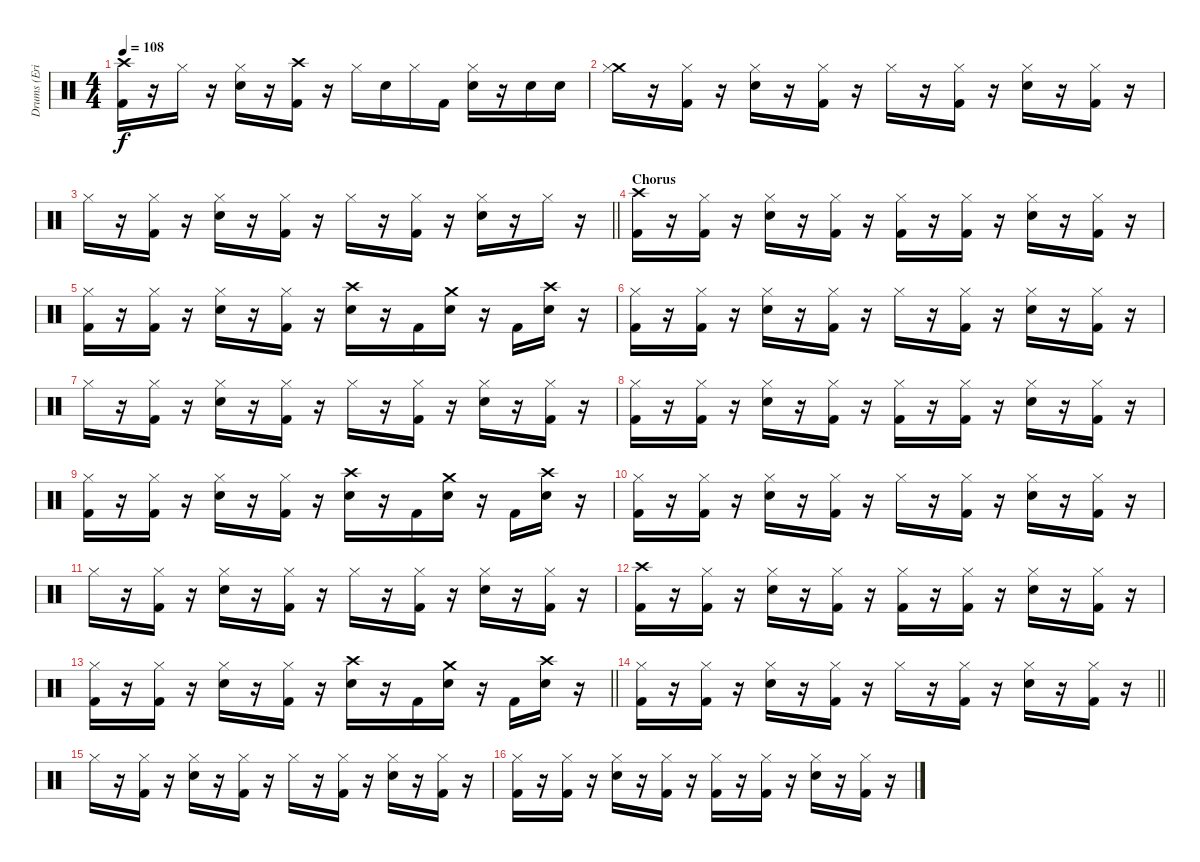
\track ("Drums (Eric Kretz)" "Drums (Eri") {instrument percussion}
\staff {score}
\articulation defaults
\ts (4 4)
\tempo 108
\clef neutral
\ks c
("Crash high (hit)" "Kick (hit) 2").16{dy f} r.16 "Hi-Hat (closed)".16 r.16 ("Hi-Hat (closed)" "Electric Snare (hit)").16 r.16 ("Crash high (hit)" "Kick (hit) 2").16 r.16 "Hi-Hat (closed)".16 "Electric Snare (hit)".16 "Hi-Hat (closed)".16 "Kick (hit) 2".16 ("Hi-Hat (closed)" "Electric Snare (hit)").16 r.16 "Electric Snare (hit)".16 "Electric Snare (hit)".16 |
("Crash medium (hit)" "Hi-Hat (closed)").16 r.16 ("Hi-Hat (closed)" "Kick (hit) 2").16 r.16 ("Hi-Hat (closed)" "Electric Snare (hit)").16 r.16 ("Hi-Hat (closed)" "Kick (hit) 2").16 r.16 "Hi-Hat (closed)".16 r.16 ("Hi-Hat (closed)" "Kick (hit) 2").16 r.16 ("Hi-Hat (closed)" "Electric Snare (hit)").16 r.16 ("Hi-Hat (closed)" "Kick (hit) 2").16 r.16 |
\barLineRight lightlight "Hi-Hat (closed)".16
r.16 ("Hi-Hat (closed)" "Kick (hit) 2").16 r.16 ("Hi-Hat (closed)" "Electric Snare (hit)").16 r.16 ("Hi-Hat (closed)" "Kick (hit) 2").16 r.16 "Hi-Hat (closed)".16 r.16 ("Hi-Hat (closed)" "Kick (hit) 2").16 r.16 ("Hi-Hat (closed)" "Electric Snare (hit)").16 r.16 "Hi-Hat (closed)".16 r.16 |
\section ("" "Chorus")
("Crash high (hit)" "Kick (hit) 2").16 r.16 ("Hi-Hat (closed)" "Kick (hit) 2").16 r.16 ("Hi-Hat (closed)" "Electric Snare (hit)").16 r.16 ("Hi-Hat (closed)" "Kick (hit) 2").16 r.16 ("Hi-Hat (closed)" "Kick (hit) 2").16 r.16 ("Hi-Hat (closed)" "Kick (hit) 2").16 r.16 ("Hi-Hat (closed)" "Electric Snare (hit)").16 r.16 ("Hi-Hat (closed)" "Kick (hit) 2").16 r.16 |
("Hi-Hat (closed)" "Kick (hit) 2").16 r.16 ("Hi-Hat (closed)" "Kick (hit) 2").16 r.16 ("Hi-Hat (closed)" "Electric Snare (hit)").16 r.16 ("Hi-Hat (closed)" "Kick (hit) 2").16 r.16 ("Crash high (hit)" "Electric Snare (hit)").16 r.16 "Kick (hit) 2".16 ("Crash medium (hit)" "Electric Snare (hit)").16 r.16 "Kick (hit) 2".16 ("Crash high (hit)" "Electric Snare (hit)").16 r.16 |
("Hi-Hat (closed)" "Kick (hit) 2").16 r.16 ("Hi-Hat (closed)" "Kick (hit) 2").16 r.16 ("Hi-Hat (closed)" "Electric Snare (hit)").16 r.16 ("Hi-Hat (closed)" "Kick (hit) 2").16 r.16 "Hi-Hat (closed)".16 r.16 ("Hi-Hat (closed)" "Kick (hit) 2").16 r.16 ("Hi-Hat (closed)" "Electric Snare (hit)").16 r.16 ("Hi-Hat (closed)" "Kick (hit) 2").16 r.16 |
"Hi-Hat (closed)".16 r.16 ("Hi-Hat (closed)" "Kick (hit) 2").16 r.16 ("Hi-Hat (closed)" "Electric Snare (hit)").16 r.16 ("Hi-Hat (closed)" "Kick (hit) 2").16 r.16 "Hi-Hat (closed)".16 r.16 ("Hi-Hat (closed)" "Kick (hit) 2").16 r.16 ("Hi-Hat (closed)" "Electric Snare (hit)").16 r.16 ("Hi-Hat (closed)" "Kick (hit) 2").16 r.16 |
("Hi-Hat (closed)" "Kick (hit) 2").16 r.16 ("Hi-Hat (closed)" "Kick (hit) 2").16 r.16 ("Hi-Hat (closed)" "Electric Snare (hit)").16 r.16 ("Hi-Hat (closed)" "Kick (hit) 2").16 r.16 ("Hi-Hat (closed)" "Kick (hit) 2").16 r.16 ("Hi-Hat (closed)" "Kick (hit) 2").16 r.16 ("Hi-Hat (closed)" "Electric Snare (hit)").16 r.16 ("Hi-Hat (closed)" "Kick (hit) 2").16 r.16 |
("Hi-Hat (closed)" "Kick (hit) 2").16 r.16 ("Hi-Hat (closed)" "Kick (hit) 2").16 r.16 ("Hi-Hat (closed)" "Electric Snare (hit)").16 r.16 ("Hi-Hat (closed)" "Kick (hit) 2").16 r.16 ("Crash high (hit)" "Electric Snare (hit)").16 r.16 "Kick (hit) 2".16 ("Crash medium (hit)" "Electric Snare (hit)").16 r.16 "Kick (hit) 2".16 ("Crash high (hit)" "Electric Snare (hit)").16 r.16 |
("Hi-Hat (closed)" "Kick (hit) 2").16 r.16 ("Hi-Hat (closed)" "Kick (hit) 2").16 r.16 ("Hi-Hat (closed)" "Electric Snare (hit)").16 r.16 ("Hi-Hat (closed)" "Kick (hit) 2").16 r.16 "Hi-Hat (closed)".16 r.16 ("Hi-Hat (closed)" "Kick (hit) 2").16 r.16 ("Hi-Hat (closed)" "Electric Snare (hit)").16 r.16 ("Hi-Hat (closed)" "Kick (hit) 2").16 r.16 |
"Hi-Hat (closed)".16 r.16 ("Hi-Hat (closed)" "Kick (hit) 2").16 r.16 ("Hi-Hat (closed)" "Electric Snare (hit)").16 r.16 ("Hi-Hat (closed)" "Kick (hit) 2").16 r.16 "Hi-Hat (closed)".16 r.16 ("Hi-Hat (closed)" "Kick (hit) 2").16 r.16 ("Hi-Hat (closed)" "Electric Snare (hit)").16 r.16 ("Hi-Hat (closed)" "Kick (hit) 2").16 r.16 |
("Crash high (hit)" "Kick (hit) 2").16 r.16 ("Hi-Hat (closed)" "Kick (hit) 2").16 r.16 ("Hi-Hat (closed)" "Electric Snare (hit)").16 r.16 ("Hi-Hat (closed)" "Kick (hit) 2").16 r.16 ("Hi-Hat (closed)" "Kick (hit) 2").16 r.16 ("Hi-Hat (closed)" "Kick (hit) 2").16 r.16 ("Hi-Hat (closed)" "Electric Snare (hit)").16 r.16 ("Hi-Hat (closed)" "Kick (hit) 2").16 r.16 |
\barLineRight lightlight
("Hi-Hat (closed)" "Kick (hit) 2").16 r.16 ("Hi-Hat (closed)" "Kick (hit) 2").16 r.16 ("Hi-Hat (closed)" "Electric Snare (hit)").16 r.16 ("Hi-Hat (closed)" "Kick (hit) 2").16 r.16 ("Crash high (hit)" "Electric Snare (hit)").16 r.16 "Kick (hit) 2".16 ("Crash medium (hit)" "Electric Snare (hit)").16 r.16 "Kick (hit) 2".16 ("Crash high (hit)" "Electric Snare (hit)").16 r.16 |
\barLineRight lightlight
("Hi-Hat (closed)" "Kick (hit) 2").16 r.16 ("Hi-Hat (closed)" "Kick (hit) 2").16 r.16 ("Hi-Hat (closed)" "Electric Snare (hit)").16 r.16 ("Hi-Hat (closed)" "Kick (hit) 2").16 r.16 "Hi-Hat (closed)".16 r.16 ("Hi-Hat (closed)" "Kick (hit) 2").16 r.16 ("Hi-Hat (closed)" "Electric Snare (hit)").16 r.16 ("Hi-Hat (closed)" "Kick (hit) 2").16 r.16 |
"Hi-Hat (closed)".16 r.16 ("Hi-Hat (closed)" "Kick (hit) 2").16 r.16 ("Hi-Hat (closed)" "Electric Snare (hit)").16 r.16 ("Hi-Hat (closed)" "Kick (hit) 2").16 r.16 "Hi-Hat (closed)".16 r.16 ("Hi-Hat (closed)" "Kick (hit) 2").16 r.16 ("Hi-Hat (closed)" "Electric Snare (hit)").16 r.16 ("Hi-Hat (closed)" "Kick (hit) 2").16 r.16 |
("Hi-Hat (closed)" "Kick (hit) 2").16 r.16 ("Hi-Hat (closed)" "Kick (hit) 2").16 r.16 ("Hi-Hat (closed)" "Electric Snare (hit)").16 r.16 ("Hi-Hat (closed)" "Kick (hit) 2").16 r.16 ("Hi-Hat (closed)" "Kick (hit) 2").16 r.16 ("Hi-Hat (closed)" "Kick (hit) 2").16 r.16 ("Hi-Hat (closed)" "Electric Snare (hit)").16 r.16 ("Hi-Hat (closed)" "Kick (hit) 2").16 r.16
